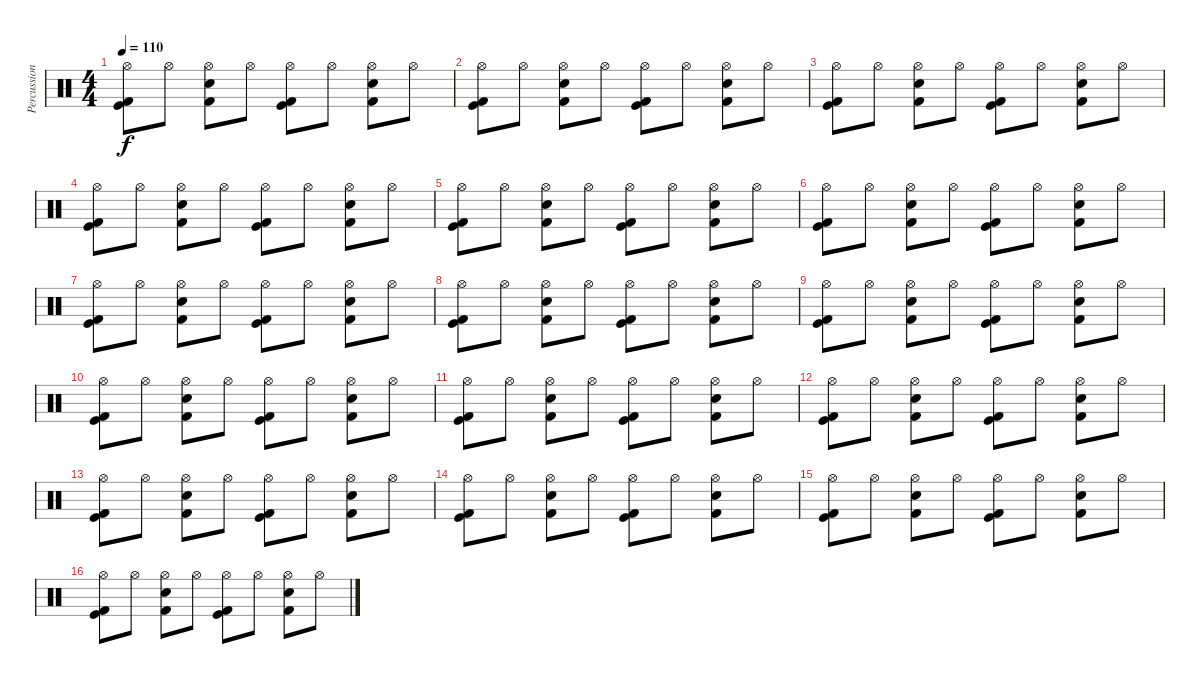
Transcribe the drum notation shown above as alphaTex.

\track ("Percussioni" "Percussion") {instrument percussion}
\staff {score}
\articulation defaults
\ts (4 4)
\tempo 110
\clef neutral
\ks c
("Hi-Hat (open)" "Kick (hit)" "Kick (hit) 2").8{dy f} "Hi-Hat (open)".8 ("Hi-Hat (open)" "Electric Snare (hit)" "Kick (hit) 2").8 "Hi-Hat (open)".8 ("Hi-Hat (open)" "Kick (hit)" "Kick (hit) 2").8 "Hi-Hat (open)".8 ("Hi-Hat (open)" "Electric Snare (hit)" "Kick (hit) 2").8 "Hi-Hat (open)".8 |
("Hi-Hat (open)" "Kick (hit)" "Kick (hit) 2").8 "Hi-Hat (open)".8 ("Hi-Hat (open)" "Electric Snare (hit)" "Kick (hit) 2").8 "Hi-Hat (open)".8 ("Hi-Hat (open)" "Kick (hit)" "Kick (hit) 2").8 "Hi-Hat (open)".8 ("Hi-Hat (open)" "Electric Snare (hit)" "Kick (hit) 2").8 "Hi-Hat (open)".8 |
("Hi-Hat (open)" "Kick (hit)" "Kick (hit) 2").8 "Hi-Hat (open)".8 ("Hi-Hat (open)" "Electric Snare (hit)" "Kick (hit) 2").8 "Hi-Hat (open)".8 ("Hi-Hat (open)" "Kick (hit)" "Kick (hit) 2").8 "Hi-Hat (open)".8 ("Hi-Hat (open)" "Electric Snare (hit)" "Kick (hit) 2").8 "Hi-Hat (open)".8 |
("Hi-Hat (open)" "Kick (hit)" "Kick (hit) 2").8 "Hi-Hat (open)".8 ("Hi-Hat (open)" "Electric Snare (hit)" "Kick (hit) 2").8 "Hi-Hat (open)".8 ("Hi-Hat (open)" "Kick (hit)" "Kick (hit) 2").8 "Hi-Hat (open)".8 ("Hi-Hat (open)" "Electric Snare (hit)" "Kick (hit) 2").8 "Hi-Hat (open)".8 |
("Hi-Hat (open)" "Kick (hit)" "Kick (hit) 2").8 "Hi-Hat (open)".8 ("Hi-Hat (open)" "Electric Snare (hit)" "Kick (hit) 2").8 "Hi-Hat (open)".8 ("Hi-Hat (open)" "Kick (hit)" "Kick (hit) 2").8 "Hi-Hat (open)".8 ("Hi-Hat (open)" "Electric Snare (hit)" "Kick (hit) 2").8 "Hi-Hat (open)".8 |
("Hi-Hat (open)" "Kick (hit)" "Kick (hit) 2").8 "Hi-Hat (open)".8 ("Hi-Hat (open)" "Electric Snare (hit)" "Kick (hit) 2").8 "Hi-Hat (open)".8 ("Hi-Hat (open)" "Kick (hit)" "Kick (hit) 2").8 "Hi-Hat (open)".8 ("Hi-Hat (open)" "Electric Snare (hit)" "Kick (hit) 2").8 "Hi-Hat (open)".8 |
("Hi-Hat (open)" "Kick (hit)" "Kick (hit) 2").8 "Hi-Hat (open)".8 ("Hi-Hat (open)" "Electric Snare (hit)" "Kick (hit) 2").8 "Hi-Hat (open)".8 ("Hi-Hat (open)" "Kick (hit)" "Kick (hit) 2").8 "Hi-Hat (open)".8 ("Hi-Hat (open)" "Electric Snare (hit)" "Kick (hit) 2").8 "Hi-Hat (open)".8 |
("Hi-Hat (open)" "Kick (hit)" "Kick (hit) 2").8 "Hi-Hat (open)".8 ("Hi-Hat (open)" "Electric Snare (hit)" "Kick (hit) 2").8 "Hi-Hat (open)".8 ("Hi-Hat (open)" "Kick (hit)" "Kick (hit) 2").8 "Hi-Hat (open)".8 ("Hi-Hat (open)" "Electric Snare (hit)" "Kick (hit) 2").8 "Hi-Hat (open)".8 |
("Hi-Hat (open)" "Kick (hit)" "Kick (hit) 2").8 "Hi-Hat (open)".8 ("Hi-Hat (open)" "Electric Snare (hit)" "Kick (hit) 2").8 "Hi-Hat (open)".8 ("Hi-Hat (open)" "Kick (hit)" "Kick (hit) 2").8 "Hi-Hat (open)".8 ("Hi-Hat (open)" "Electric Snare (hit)" "Kick (hit) 2").8 "Hi-Hat (open)".8 |
("Hi-Hat (open)" "Kick (hit)" "Kick (hit) 2").8 "Hi-Hat (open)".8 ("Hi-Hat (open)" "Electric Snare (hit)" "Kick (hit) 2").8 "Hi-Hat (open)".8 ("Hi-Hat (open)" "Kick (hit)" "Kick (hit) 2").8 "Hi-Hat (open)".8 ("Hi-Hat (open)" "Electric Snare (hit)" "Kick (hit) 2").8 "Hi-Hat (open)".8 |
("Hi-Hat (open)" "Kick (hit)" "Kick (hit) 2").8 "Hi-Hat (open)".8 ("Hi-Hat (open)" "Electric Snare (hit)" "Kick (hit) 2").8 "Hi-Hat (open)".8 ("Hi-Hat (open)" "Kick (hit)" "Kick (hit) 2").8 "Hi-Hat (open)".8 ("Hi-Hat (open)" "Electric Snare (hit)" "Kick (hit) 2").8 "Hi-Hat (open)".8 |
("Hi-Hat (open)" "Kick (hit)" "Kick (hit) 2").8 "Hi-Hat (open)".8 ("Hi-Hat (open)" "Electric Snare (hit)" "Kick (hit) 2").8 "Hi-Hat (open)".8 ("Hi-Hat (open)" "Kick (hit)" "Kick (hit) 2").8 "Hi-Hat (open)".8 ("Hi-Hat (open)" "Electric Snare (hit)" "Kick (hit) 2").8 "Hi-Hat (open)".8 |
("Hi-Hat (open)" "Kick (hit)" "Kick (hit) 2").8 "Hi-Hat (open)".8 ("Hi-Hat (open)" "Electric Snare (hit)" "Kick (hit) 2").8 "Hi-Hat (open)".8 ("Hi-Hat (open)" "Kick (hit)" "Kick (hit) 2").8 "Hi-Hat (open)".8 ("Hi-Hat (open)" "Electric Snare (hit)" "Kick (hit) 2").8 "Hi-Hat (open)".8 |
("Hi-Hat (open)" "Kick (hit)" "Kick (hit) 2").8 "Hi-Hat (open)".8 ("Hi-Hat (open)" "Electric Snare (hit)" "Kick (hit) 2").8 "Hi-Hat (open)".8 ("Hi-Hat (open)" "Kick (hit)" "Kick (hit) 2").8 "Hi-Hat (open)".8 ("Hi-Hat (open)" "Electric Snare (hit)" "Kick (hit) 2").8 "Hi-Hat (open)".8 |
("Hi-Hat (open)" "Kick (hit)" "Kick (hit) 2").8 "Hi-Hat (open)".8 ("Hi-Hat (open)" "Electric Snare (hit)" "Kick (hit) 2").8 "Hi-Hat (open)".8 ("Hi-Hat (open)" "Kick (hit)" "Kick (hit) 2").8 "Hi-Hat (open)".8 ("Hi-Hat (open)" "Electric Snare (hit)" "Kick (hit) 2").8 "Hi-Hat (open)".8 |
("Hi-Hat (open)" "Kick (hit)" "Kick (hit) 2").8 "Hi-Hat (open)".8 ("Hi-Hat (open)" "Electric Snare (hit)" "Kick (hit) 2").8 "Hi-Hat (open)".8 ("Hi-Hat (open)" "Kick (hit)" "Kick (hit) 2").8 "Hi-Hat (open)".8 ("Hi-Hat (open)" "Electric Snare (hit)" "Kick (hit) 2").8 "Hi-Hat (open)".8
